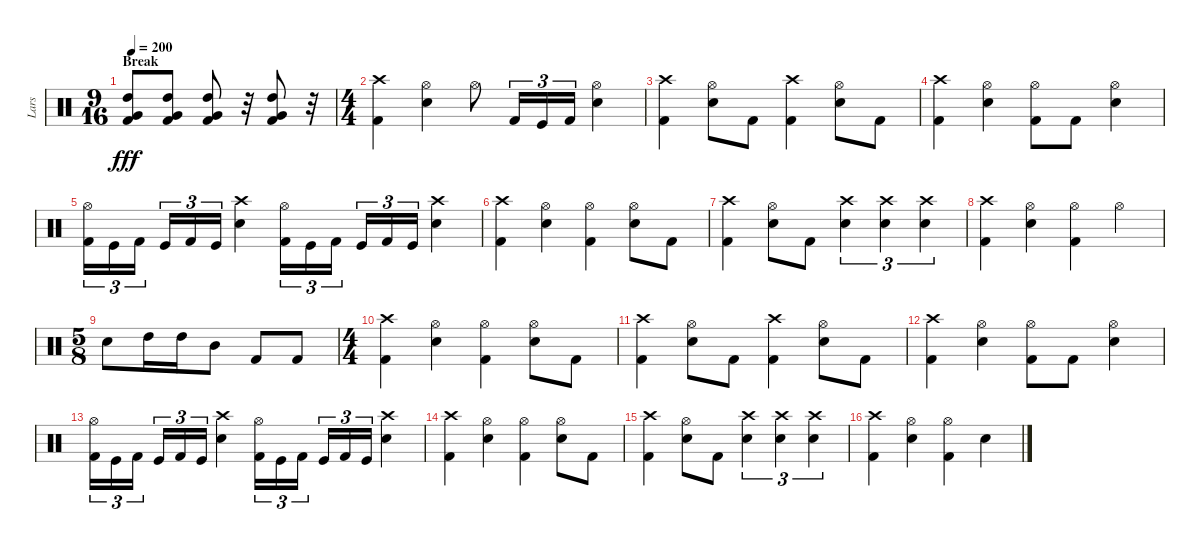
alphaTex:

\track ("Lars" "Lars") {instrument percussion}
\staff {score}
\articulation defaults
\ts (9 16)
\section ("" "Break")
\tempo 200
\clef neutral
\ks c
("High Tom (hit)" "Very Low Tom (hit)" "Kick (hit) 2").8{dy fff} ("High Tom (hit)" "Very Low Tom (hit)" "Kick (hit) 2").8 ("High Tom (hit)" "Very Low Tom (hit)" "Kick (hit) 2").8 r.32 ("High Tom (hit)" "Very Low Tom (hit)" "Kick (hit) 2").8 r.32 |
\ts (4 4)
("Crash high (hit)" "Kick (hit) 2").4 ("Hi-Hat (open)" "Snare (hit) 2").4 "Hi-Hat (open)".8 "Kick (hit) 2".16{tu (3 2)} "Kick (hit)".16{tu (3 2)} "Kick (hit) 2".16{tu (3 2)} ("Hi-Hat (open)" "Snare (hit) 2").4 |
("Crash high (hit)" "Kick (hit) 2").4 ("Hi-Hat (open)" "Snare (hit) 2").8 "Kick (hit) 2".8 ("Crash high (hit)" "Kick (hit) 2").4 ("Hi-Hat (open)" "Snare (hit) 2").8 "Kick (hit) 2".8 |
("Crash high (hit)" "Kick (hit) 2").4 ("Hi-Hat (open)" "Snare (hit) 2").4 ("Hi-Hat (open)" "Kick (hit) 2").8 "Kick (hit) 2".8 ("Hi-Hat (open)" "Snare (hit) 2").4 |
("Hi-Hat (open)" "Kick (hit) 2").16{tu (3 2)} "Kick (hit)".16{tu (3 2)} "Kick (hit) 2".16{tu (3 2)} "Kick (hit)".16{tu (3 2)} "Kick (hit) 2".16{tu (3 2)} "Kick (hit)".16{tu (3 2)} ("Crash high (hit)" "Snare (hit) 2").4 ("Hi-Hat (open)" "Kick (hit) 2").16{tu (3 2)} "Kick (hit)".16{tu (3 2)} "Kick (hit) 2".16{tu (3 2)} "Kick (hit)".16{tu (3 2)} "Kick (hit) 2".16{tu (3 2)} "Kick (hit)".16{tu (3 2)} ("Crash high (hit)" "Snare (hit) 2").4 |
("Crash high (hit)" "Kick (hit) 2").4 ("Hi-Hat (open)" "Snare (hit) 2").4 ("Hi-Hat (open)" "Kick (hit) 2").4 ("Hi-Hat (open)" "Snare (hit) 2").8 "Kick (hit) 2".8 |
("Crash high (hit)" "Kick (hit) 2").4 ("Hi-Hat (open)" "Snare (hit) 2").8 "Kick (hit) 2".8 ("Crash high (hit)" "Snare (hit) 2").4{tu (3 2)} ("Crash high (hit)" "Snare (hit) 2").4{tu (3 2)} ("Crash high (hit)" "Snare (hit) 2").4{tu (3 2)} |
("Crash high (hit)" "Kick (hit) 2").4 ("Hi-Hat (open)" "Snare (hit) 2").4 ("Hi-Hat (open)" "Kick (hit) 2").4 "Hi-Hat (open)".4 |
\ts (5 8)
"Snare (hit) 2".8 "High Tom (hit)".16 "High Tom (hit)".16 "Mid Tom (hit)".8 "Kick (hit) 2".8 "Kick (hit) 2".8 |
\ts (4 4)
("Crash high (hit)" "Kick (hit) 2").4 ("Hi-Hat (open)" "Snare (hit) 2").4 ("Hi-Hat (open)" "Kick (hit) 2").4 ("Hi-Hat (open)" "Snare (hit) 2").8 "Kick (hit) 2".8 |
("Crash high (hit)" "Kick (hit) 2").4 ("Hi-Hat (open)" "Snare (hit) 2").8 "Kick (hit) 2".8 ("Crash high (hit)" "Kick (hit) 2").4 ("Hi-Hat (open)" "Snare (hit) 2").8 "Kick (hit) 2".8 |
("Crash high (hit)" "Kick (hit) 2").4 ("Hi-Hat (open)" "Snare (hit) 2").4 ("Hi-Hat (open)" "Kick (hit) 2").8 "Kick (hit) 2".8 ("Hi-Hat (open)" "Snare (hit) 2").4 |
("Hi-Hat (open)" "Kick (hit) 2").16{tu (3 2)} "Kick (hit)".16{tu (3 2)} "Kick (hit) 2".16{tu (3 2)} "Kick (hit)".16{tu (3 2)} "Kick (hit) 2".16{tu (3 2)} "Kick (hit)".16{tu (3 2)} ("Crash high (hit)" "Snare (hit) 2").4 ("Hi-Hat (open)" "Kick (hit) 2").16{tu (3 2)} "Kick (hit)".16{tu (3 2)} "Kick (hit) 2".16{tu (3 2)} "Kick (hit)".16{tu (3 2)} "Kick (hit) 2".16{tu (3 2)} "Kick (hit)".16{tu (3 2)} ("Crash high (hit)" "Snare (hit) 2").4 |
("Crash high (hit)" "Kick (hit) 2").4 ("Hi-Hat (open)" "Snare (hit) 2").4 ("Hi-Hat (open)" "Kick (hit) 2").4 ("Hi-Hat (open)" "Snare (hit) 2").8 "Kick (hit) 2".8 |
("Crash high (hit)" "Kick (hit) 2").4 ("Hi-Hat (open)" "Snare (hit) 2").8 "Kick (hit) 2".8 ("Crash high (hit)" "Snare (hit) 2").4{tu (3 2)} ("Crash high (hit)" "Snare (hit) 2").4{tu (3 2)} ("Crash high (hit)" "Snare (hit) 2").4{tu (3 2)} |
("Crash high (hit)" "Kick (hit) 2").4 ("Hi-Hat (open)" "Snare (hit) 2").4 ("Hi-Hat (open)" "Kick (hit) 2").4 "Snare (hit) 2".4
